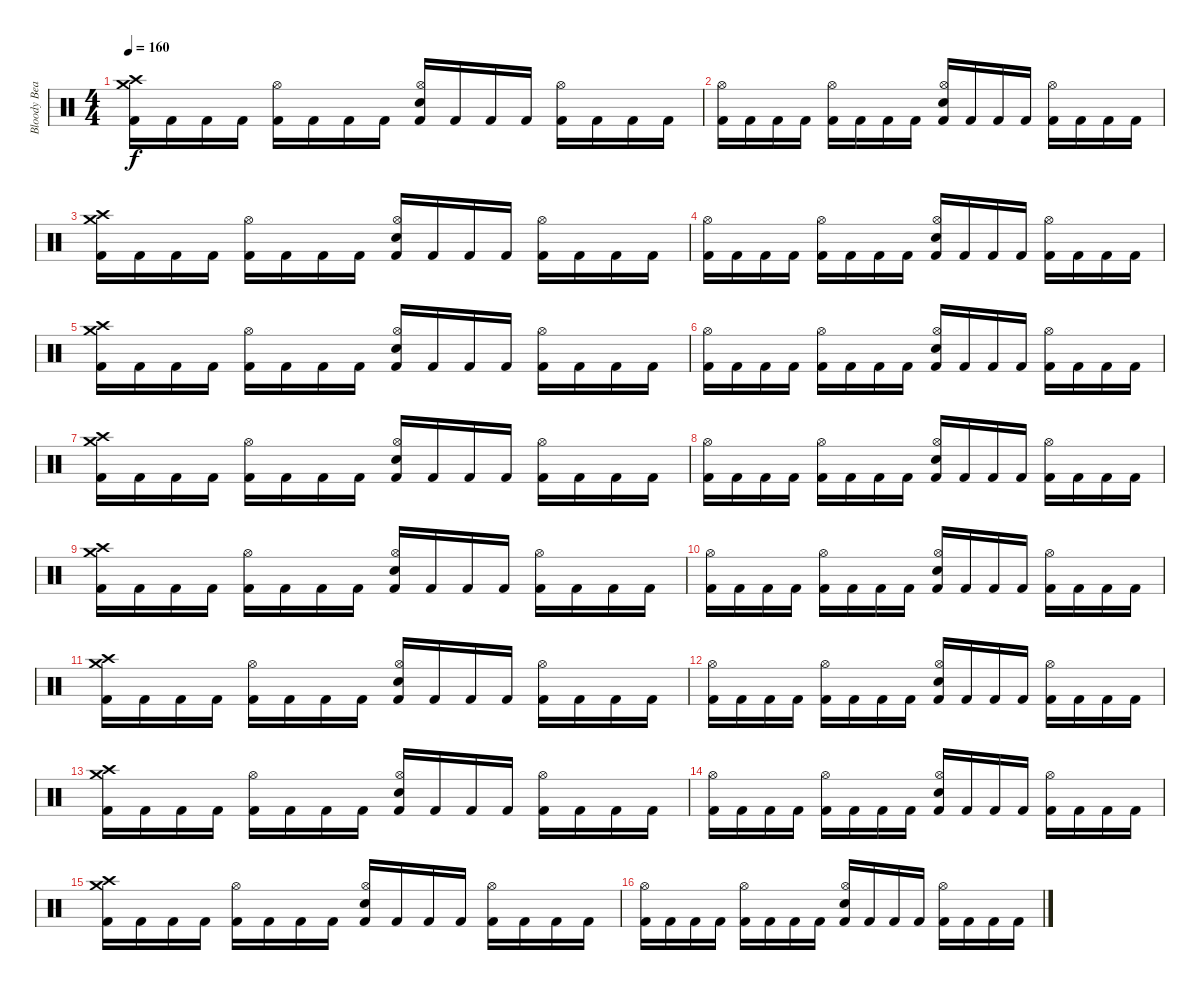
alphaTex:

\track ("Bloody Beater" "Bloody Bea") {instrument percussion}
\staff {score}
\articulation defaults
\ts (4 4)
\tempo 160
\clef neutral
\ks c
("Crash high (hit)" "Crash medium (hit)" "Kick (hit) 2").16{dy f} "Kick (hit) 2".16 "Kick (hit) 2".16 "Kick (hit) 2".16 ("Hi-Hat (open)" "Kick (hit) 2").16 "Kick (hit) 2".16 "Kick (hit) 2".16 "Kick (hit) 2".16 ("Hi-Hat (open)" "Snare (hit) 2" "Kick (hit) 2").16 "Kick (hit) 2".16 "Kick (hit) 2".16 "Kick (hit) 2".16 ("Hi-Hat (open)" "Kick (hit) 2").16 "Kick (hit) 2".16 "Kick (hit) 2".16 "Kick (hit) 2".16 |
("Hi-Hat (open)" "Kick (hit) 2").16 "Kick (hit) 2".16 "Kick (hit) 2".16 "Kick (hit) 2".16 ("Hi-Hat (open)" "Kick (hit) 2").16 "Kick (hit) 2".16 "Kick (hit) 2".16 "Kick (hit) 2".16 ("Hi-Hat (open)" "Snare (hit) 2" "Kick (hit) 2").16 "Kick (hit) 2".16 "Kick (hit) 2".16 "Kick (hit) 2".16 ("Hi-Hat (open)" "Kick (hit) 2").16 "Kick (hit) 2".16 "Kick (hit) 2".16 "Kick (hit) 2".16 |
("Crash high (hit)" "Crash medium (hit)" "Kick (hit) 2").16 "Kick (hit) 2".16 "Kick (hit) 2".16 "Kick (hit) 2".16 ("Hi-Hat (open)" "Kick (hit) 2").16 "Kick (hit) 2".16 "Kick (hit) 2".16 "Kick (hit) 2".16 ("Hi-Hat (open)" "Snare (hit) 2" "Kick (hit) 2").16 "Kick (hit) 2".16 "Kick (hit) 2".16 "Kick (hit) 2".16 ("Hi-Hat (open)" "Kick (hit) 2").16 "Kick (hit) 2".16 "Kick (hit) 2".16 "Kick (hit) 2".16 |
("Hi-Hat (open)" "Kick (hit) 2").16 "Kick (hit) 2".16 "Kick (hit) 2".16 "Kick (hit) 2".16 ("Hi-Hat (open)" "Kick (hit) 2").16 "Kick (hit) 2".16 "Kick (hit) 2".16 "Kick (hit) 2".16 ("Hi-Hat (open)" "Snare (hit) 2" "Kick (hit) 2").16 "Kick (hit) 2".16 "Kick (hit) 2".16 "Kick (hit) 2".16 ("Hi-Hat (open)" "Kick (hit) 2").16 "Kick (hit) 2".16 "Kick (hit) 2".16 "Kick (hit) 2".16 |
("Crash high (hit)" "Crash medium (hit)" "Kick (hit) 2").16 "Kick (hit) 2".16 "Kick (hit) 2".16 "Kick (hit) 2".16 ("Hi-Hat (open)" "Kick (hit) 2").16 "Kick (hit) 2".16 "Kick (hit) 2".16 "Kick (hit) 2".16 ("Hi-Hat (open)" "Snare (hit) 2" "Kick (hit) 2").16 "Kick (hit) 2".16 "Kick (hit) 2".16 "Kick (hit) 2".16 ("Hi-Hat (open)" "Kick (hit) 2").16 "Kick (hit) 2".16 "Kick (hit) 2".16 "Kick (hit) 2".16 |
("Hi-Hat (open)" "Kick (hit) 2").16 "Kick (hit) 2".16 "Kick (hit) 2".16 "Kick (hit) 2".16 ("Hi-Hat (open)" "Kick (hit) 2").16 "Kick (hit) 2".16 "Kick (hit) 2".16 "Kick (hit) 2".16 ("Hi-Hat (open)" "Snare (hit) 2" "Kick (hit) 2").16 "Kick (hit) 2".16 "Kick (hit) 2".16 "Kick (hit) 2".16 ("Hi-Hat (open)" "Kick (hit) 2").16 "Kick (hit) 2".16 "Kick (hit) 2".16 "Kick (hit) 2".16 |
("Crash high (hit)" "Crash medium (hit)" "Kick (hit) 2").16 "Kick (hit) 2".16 "Kick (hit) 2".16 "Kick (hit) 2".16 ("Hi-Hat (open)" "Kick (hit) 2").16 "Kick (hit) 2".16 "Kick (hit) 2".16 "Kick (hit) 2".16 ("Hi-Hat (open)" "Snare (hit) 2" "Kick (hit) 2").16 "Kick (hit) 2".16 "Kick (hit) 2".16 "Kick (hit) 2".16 ("Hi-Hat (open)" "Kick (hit) 2").16 "Kick (hit) 2".16 "Kick (hit) 2".16 "Kick (hit) 2".16 |
("Hi-Hat (open)" "Kick (hit) 2").16 "Kick (hit) 2".16 "Kick (hit) 2".16 "Kick (hit) 2".16 ("Hi-Hat (open)" "Kick (hit) 2").16 "Kick (hit) 2".16 "Kick (hit) 2".16 "Kick (hit) 2".16 ("Hi-Hat (open)" "Snare (hit) 2" "Kick (hit) 2").16 "Kick (hit) 2".16 "Kick (hit) 2".16 "Kick (hit) 2".16 ("Hi-Hat (open)" "Kick (hit) 2").16 "Kick (hit) 2".16 "Kick (hit) 2".16 "Kick (hit) 2".16 |
("Crash high (hit)" "Crash medium (hit)" "Kick (hit) 2").16 "Kick (hit) 2".16 "Kick (hit) 2".16 "Kick (hit) 2".16 ("Hi-Hat (open)" "Kick (hit) 2").16 "Kick (hit) 2".16 "Kick (hit) 2".16 "Kick (hit) 2".16 ("Hi-Hat (open)" "Snare (hit) 2" "Kick (hit) 2").16 "Kick (hit) 2".16 "Kick (hit) 2".16 "Kick (hit) 2".16 ("Hi-Hat (open)" "Kick (hit) 2").16 "Kick (hit) 2".16 "Kick (hit) 2".16 "Kick (hit) 2".16 |
("Hi-Hat (open)" "Kick (hit) 2").16 "Kick (hit) 2".16 "Kick (hit) 2".16 "Kick (hit) 2".16 ("Hi-Hat (open)" "Kick (hit) 2").16 "Kick (hit) 2".16 "Kick (hit) 2".16 "Kick (hit) 2".16 ("Hi-Hat (open)" "Snare (hit) 2" "Kick (hit) 2").16 "Kick (hit) 2".16 "Kick (hit) 2".16 "Kick (hit) 2".16 ("Hi-Hat (open)" "Kick (hit) 2").16 "Kick (hit) 2".16 "Kick (hit) 2".16 "Kick (hit) 2".16 |
("Crash high (hit)" "Crash medium (hit)" "Kick (hit) 2").16 "Kick (hit) 2".16 "Kick (hit) 2".16 "Kick (hit) 2".16 ("Hi-Hat (open)" "Kick (hit) 2").16 "Kick (hit) 2".16 "Kick (hit) 2".16 "Kick (hit) 2".16 ("Hi-Hat (open)" "Snare (hit) 2" "Kick (hit) 2").16 "Kick (hit) 2".16 "Kick (hit) 2".16 "Kick (hit) 2".16 ("Hi-Hat (open)" "Kick (hit) 2").16 "Kick (hit) 2".16 "Kick (hit) 2".16 "Kick (hit) 2".16 |
("Hi-Hat (open)" "Kick (hit) 2").16 "Kick (hit) 2".16 "Kick (hit) 2".16 "Kick (hit) 2".16 ("Hi-Hat (open)" "Kick (hit) 2").16 "Kick (hit) 2".16 "Kick (hit) 2".16 "Kick (hit) 2".16 ("Hi-Hat (open)" "Snare (hit) 2" "Kick (hit) 2").16 "Kick (hit) 2".16 "Kick (hit) 2".16 "Kick (hit) 2".16 ("Hi-Hat (open)" "Kick (hit) 2").16 "Kick (hit) 2".16 "Kick (hit) 2".16 "Kick (hit) 2".16 |
("Crash high (hit)" "Crash medium (hit)" "Kick (hit) 2").16 "Kick (hit) 2".16 "Kick (hit) 2".16 "Kick (hit) 2".16 ("Hi-Hat (open)" "Kick (hit) 2").16 "Kick (hit) 2".16 "Kick (hit) 2".16 "Kick (hit) 2".16 ("Hi-Hat (open)" "Snare (hit) 2" "Kick (hit) 2").16 "Kick (hit) 2".16 "Kick (hit) 2".16 "Kick (hit) 2".16 ("Hi-Hat (open)" "Kick (hit) 2").16 "Kick (hit) 2".16 "Kick (hit) 2".16 "Kick (hit) 2".16 |
("Hi-Hat (open)" "Kick (hit) 2").16 "Kick (hit) 2".16 "Kick (hit) 2".16 "Kick (hit) 2".16 ("Hi-Hat (open)" "Kick (hit) 2").16 "Kick (hit) 2".16 "Kick (hit) 2".16 "Kick (hit) 2".16 ("Hi-Hat (open)" "Snare (hit) 2" "Kick (hit) 2").16 "Kick (hit) 2".16 "Kick (hit) 2".16 "Kick (hit) 2".16 ("Hi-Hat (open)" "Kick (hit) 2").16 "Kick (hit) 2".16 "Kick (hit) 2".16 "Kick (hit) 2".16 |
("Crash high (hit)" "Crash medium (hit)" "Kick (hit) 2").16 "Kick (hit) 2".16 "Kick (hit) 2".16 "Kick (hit) 2".16 ("Hi-Hat (open)" "Kick (hit) 2").16 "Kick (hit) 2".16 "Kick (hit) 2".16 "Kick (hit) 2".16 ("Hi-Hat (open)" "Snare (hit) 2" "Kick (hit) 2").16 "Kick (hit) 2".16 "Kick (hit) 2".16 "Kick (hit) 2".16 ("Hi-Hat (open)" "Kick (hit) 2").16 "Kick (hit) 2".16 "Kick (hit) 2".16 "Kick (hit) 2".16 |
("Hi-Hat (open)" "Kick (hit) 2").16 "Kick (hit) 2".16 "Kick (hit) 2".16 "Kick (hit) 2".16 ("Hi-Hat (open)" "Kick (hit) 2").16 "Kick (hit) 2".16 "Kick (hit) 2".16 "Kick (hit) 2".16 ("Hi-Hat (open)" "Snare (hit) 2" "Kick (hit) 2").16 "Kick (hit) 2".16 "Kick (hit) 2".16 "Kick (hit) 2".16 ("Hi-Hat (open)" "Kick (hit) 2").16 "Kick (hit) 2".16 "Kick (hit) 2".16 "Kick (hit) 2".16
